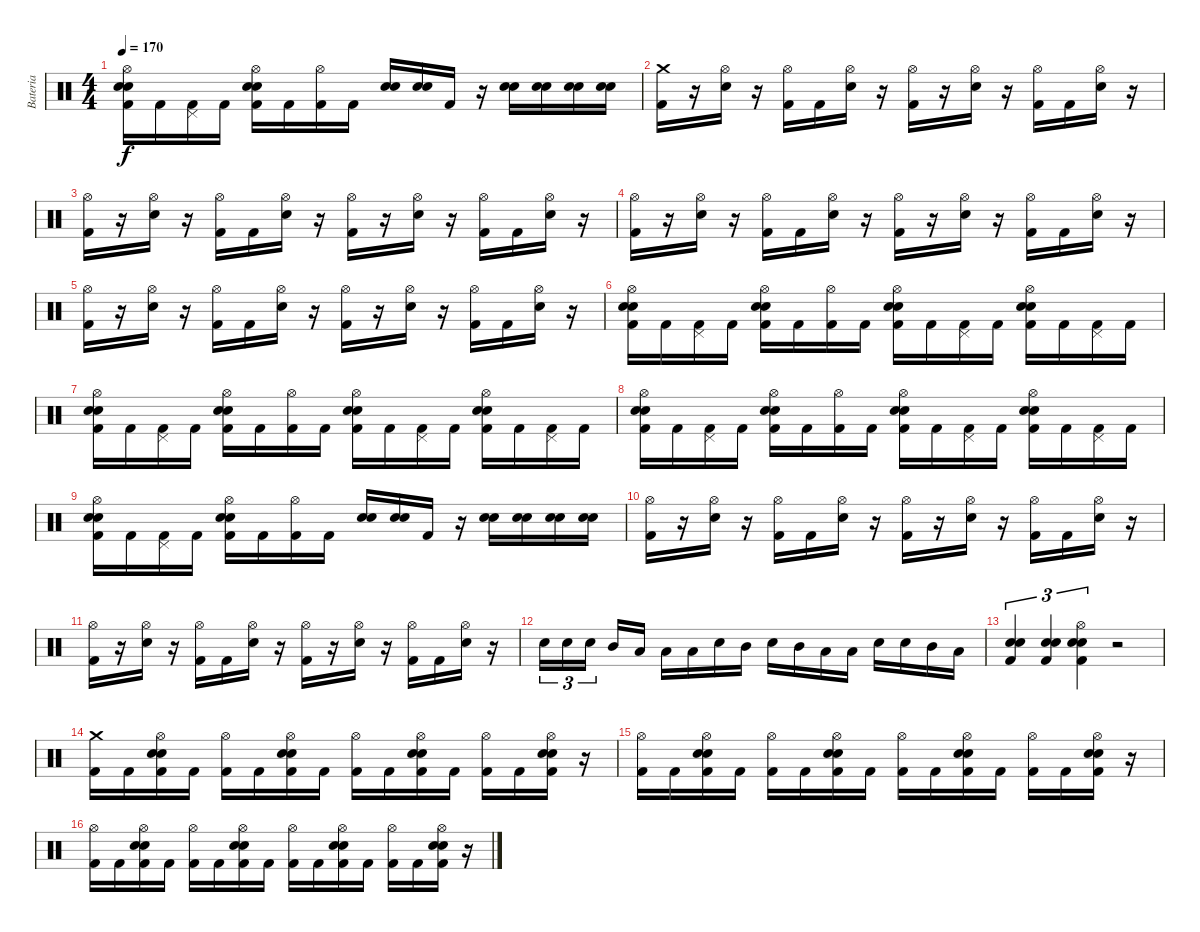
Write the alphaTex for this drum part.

\track ("Bateria" "Bateria") {instrument percussion}
\staff {score}
\articulation defaults
\ts (4 4)
\tempo 170
\clef neutral
\ks c
("Hi-Hat (open)" "Electric Snare (hit)" "Snare (hit) 2" "Kick (hit) 2").16{dy f} "Kick (hit) 2".16 ("Pedal Hi-Hat (hit)" "Kick (hit) 2").16 "Kick (hit) 2".16 ("Hi-Hat (open)" "Electric Snare (hit)" "Snare (hit) 2" "Kick (hit) 2").16 "Kick (hit) 2".16 ("Hi-Hat (open)" "Kick (hit) 2").16 "Kick (hit) 2".16 ("Electric Snare (hit)" "Snare (hit) 2").16 ("Electric Snare (hit)" "Snare (hit) 2").16 "Kick (hit) 2".16 r.16 ("Electric Snare (hit)" "Snare (hit) 2").16 ("Electric Snare (hit)" "Snare (hit) 2").16 ("Electric Snare (hit)" "Snare (hit) 2").16 ("Electric Snare (hit)" "Snare (hit) 2").16 |
("Crash medium (hit)" "Kick (hit) 2").16 r.16 ("Hi-Hat (open)" "Electric Snare (hit)").16 r.16 ("Hi-Hat (open)" "Kick (hit) 2").16 "Kick (hit) 2".16 ("Hi-Hat (open)" "Electric Snare (hit)").16 r.16 ("Hi-Hat (open)" "Kick (hit) 2").16 r.16 ("Hi-Hat (open)" "Electric Snare (hit)").16 r.16 ("Hi-Hat (open)" "Kick (hit) 2").16 "Kick (hit) 2".16 ("Hi-Hat (open)" "Electric Snare (hit)").16 r.16 |
("Hi-Hat (open)" "Kick (hit) 2").16 r.16 ("Hi-Hat (open)" "Electric Snare (hit)").16 r.16 ("Hi-Hat (open)" "Kick (hit) 2").16 "Kick (hit) 2".16 ("Hi-Hat (open)" "Electric Snare (hit)").16 r.16 ("Hi-Hat (open)" "Kick (hit) 2").16 r.16 ("Hi-Hat (open)" "Electric Snare (hit)").16 r.16 ("Hi-Hat (open)" "Kick (hit) 2").16 "Kick (hit) 2".16 ("Hi-Hat (open)" "Electric Snare (hit)").16 r.16 |
("Hi-Hat (open)" "Kick (hit) 2").16 r.16 ("Hi-Hat (open)" "Electric Snare (hit)").16 r.16 ("Hi-Hat (open)" "Kick (hit) 2").16 "Kick (hit) 2".16 ("Hi-Hat (open)" "Electric Snare (hit)").16 r.16 ("Hi-Hat (open)" "Kick (hit) 2").16 r.16 ("Hi-Hat (open)" "Electric Snare (hit)").16 r.16 ("Hi-Hat (open)" "Kick (hit) 2").16 "Kick (hit) 2".16 ("Hi-Hat (open)" "Electric Snare (hit)").16 r.16 |
("Hi-Hat (open)" "Kick (hit) 2").16 r.16 ("Hi-Hat (open)" "Electric Snare (hit)").16 r.16 ("Hi-Hat (open)" "Kick (hit) 2").16 "Kick (hit) 2".16 ("Hi-Hat (open)" "Electric Snare (hit)").16 r.16 ("Hi-Hat (open)" "Kick (hit) 2").16 r.16 ("Hi-Hat (open)" "Electric Snare (hit)").16 r.16 ("Hi-Hat (open)" "Kick (hit) 2").16 "Kick (hit) 2".16 ("Hi-Hat (open)" "Electric Snare (hit)").16 r.16 |
("Hi-Hat (open)" "Electric Snare (hit)" "Snare (hit) 2" "Kick (hit) 2").16 "Kick (hit) 2".16 ("Pedal Hi-Hat (hit)" "Kick (hit) 2").16 "Kick (hit) 2".16 ("Hi-Hat (open)" "Electric Snare (hit)" "Snare (hit) 2" "Kick (hit) 2").16 "Kick (hit) 2".16 ("Hi-Hat (open)" "Kick (hit) 2").16 "Kick (hit) 2".16 ("Hi-Hat (open)" "Electric Snare (hit)" "Snare (hit) 2" "Kick (hit) 2").16 "Kick (hit) 2".16 ("Pedal Hi-Hat (hit)" "Kick (hit) 2").16 "Kick (hit) 2".16 ("Hi-Hat (open)" "Electric Snare (hit)" "Snare (hit) 2" "Kick (hit) 2").16 "Kick (hit) 2".16 ("Pedal Hi-Hat (hit)" "Kick (hit) 2").16 "Kick (hit) 2".16 |
("Hi-Hat (open)" "Electric Snare (hit)" "Snare (hit) 2" "Kick (hit) 2").16 "Kick (hit) 2".16 ("Pedal Hi-Hat (hit)" "Kick (hit) 2").16 "Kick (hit) 2".16 ("Hi-Hat (open)" "Electric Snare (hit)" "Snare (hit) 2" "Kick (hit) 2").16 "Kick (hit) 2".16 ("Hi-Hat (open)" "Kick (hit) 2").16 "Kick (hit) 2".16 ("Hi-Hat (open)" "Electric Snare (hit)" "Snare (hit) 2" "Kick (hit) 2").16 "Kick (hit) 2".16 ("Pedal Hi-Hat (hit)" "Kick (hit) 2").16 "Kick (hit) 2".16 ("Hi-Hat (open)" "Electric Snare (hit)" "Snare (hit) 2" "Kick (hit) 2").16 "Kick (hit) 2".16 ("Pedal Hi-Hat (hit)" "Kick (hit) 2").16 "Kick (hit) 2".16 |
("Hi-Hat (open)" "Electric Snare (hit)" "Snare (hit) 2" "Kick (hit) 2").16 "Kick (hit) 2".16 ("Pedal Hi-Hat (hit)" "Kick (hit) 2").16 "Kick (hit) 2".16 ("Hi-Hat (open)" "Electric Snare (hit)" "Snare (hit) 2" "Kick (hit) 2").16 "Kick (hit) 2".16 ("Hi-Hat (open)" "Kick (hit) 2").16 "Kick (hit) 2".16 ("Hi-Hat (open)" "Electric Snare (hit)" "Snare (hit) 2" "Kick (hit) 2").16 "Kick (hit) 2".16 ("Pedal Hi-Hat (hit)" "Kick (hit) 2").16 "Kick (hit) 2".16 ("Hi-Hat (open)" "Electric Snare (hit)" "Snare (hit) 2" "Kick (hit) 2").16 "Kick (hit) 2".16 ("Pedal Hi-Hat (hit)" "Kick (hit) 2").16 "Kick (hit) 2".16 |
("Hi-Hat (open)" "Electric Snare (hit)" "Snare (hit) 2" "Kick (hit) 2").16 "Kick (hit) 2".16 ("Pedal Hi-Hat (hit)" "Kick (hit) 2").16 "Kick (hit) 2".16 ("Hi-Hat (open)" "Electric Snare (hit)" "Snare (hit) 2" "Kick (hit) 2").16 "Kick (hit) 2".16 ("Hi-Hat (open)" "Kick (hit) 2").16 "Kick (hit) 2".16 ("Electric Snare (hit)" "Snare (hit) 2").16 ("Electric Snare (hit)" "Snare (hit) 2").16 "Kick (hit) 2".16 r.16 ("Electric Snare (hit)" "Snare (hit) 2").16 ("Electric Snare (hit)" "Snare (hit) 2").16 ("Electric Snare (hit)" "Snare (hit) 2").16 ("Electric Snare (hit)" "Snare (hit) 2").16 |
("Hi-Hat (open)" "Kick (hit) 2").16 r.16 ("Hi-Hat (open)" "Electric Snare (hit)").16 r.16 ("Hi-Hat (open)" "Kick (hit) 2").16 "Kick (hit) 2".16 ("Hi-Hat (open)" "Electric Snare (hit)").16 r.16 ("Hi-Hat (open)" "Kick (hit) 2").16 r.16 ("Hi-Hat (open)" "Electric Snare (hit)").16 r.16 ("Hi-Hat (open)" "Kick (hit) 2").16 "Kick (hit) 2".16 ("Hi-Hat (open)" "Electric Snare (hit)").16 r.16 |
("Hi-Hat (open)" "Kick (hit) 2").16 r.16 ("Hi-Hat (open)" "Electric Snare (hit)").16 r.16 ("Hi-Hat (open)" "Kick (hit) 2").16 "Kick (hit) 2".16 ("Hi-Hat (open)" "Electric Snare (hit)").16 r.16 ("Hi-Hat (open)" "Kick (hit) 2").16 r.16 ("Hi-Hat (open)" "Electric Snare (hit)").16 r.16 ("Hi-Hat (open)" "Kick (hit) 2").16 "Kick (hit) 2".16 ("Hi-Hat (open)" "Electric Snare (hit)").16 r.16 |
"Electric Snare (hit)".16{tu (3 2)} "Electric Snare (hit)".16{tu (3 2)} "Electric Snare (hit)".16{tu (3 2)} "Mid Tom (hit)".16 "Low Tom (hit)".16 "Low Tom (hit)".16 "Low Tom (hit)".16 "Electric Snare (hit)".16 "Mid Tom (hit)".16 "Electric Snare (hit)".16 "Mid Tom (hit)".16 "Low Tom (hit)".16 "Low Tom (hit)".16 "Electric Snare (hit)".16 "Electric Snare (hit)".16 "Mid Tom (hit)".16 "Low Tom (hit)".16 |
("Electric Snare (hit)" "Snare (hit) 2" "Kick (hit) 2").4{tu (3 2)} ("Electric Snare (hit)" "Snare (hit) 2" "Kick (hit) 2").4{tu (3 2)} ("Hi-Hat (open)" "Electric Snare (hit)" "Snare (hit) 2" "Kick (hit) 2").4{tu (3 2)} r.2 |
("Crash medium (hit)" "Kick (hit) 2").16 "Kick (hit) 2".16 ("Hi-Hat (open)" "Electric Snare (hit)" "Snare (hit) 2" "Kick (hit) 2").16 "Kick (hit) 2".16 ("Hi-Hat (open)" "Kick (hit) 2").16 "Kick (hit) 2".16 ("Hi-Hat (open)" "Electric Snare (hit)" "Snare (hit) 2" "Kick (hit) 2").16 "Kick (hit) 2".16 ("Hi-Hat (open)" "Kick (hit) 2").16 "Kick (hit) 2".16 ("Hi-Hat (open)" "Electric Snare (hit)" "Snare (hit) 2" "Kick (hit) 2").16 "Kick (hit) 2".16 ("Hi-Hat (open)" "Kick (hit) 2").16 "Kick (hit) 2".16 ("Hi-Hat (open)" "Electric Snare (hit)" "Snare (hit) 2" "Kick (hit) 2").16 r.16 |
("Hi-Hat (open)" "Kick (hit) 2").16 "Kick (hit) 2".16 ("Hi-Hat (open)" "Electric Snare (hit)" "Snare (hit) 2" "Kick (hit) 2").16 "Kick (hit) 2".16 ("Hi-Hat (open)" "Kick (hit) 2").16 "Kick (hit) 2".16 ("Hi-Hat (open)" "Electric Snare (hit)" "Snare (hit) 2" "Kick (hit) 2").16 "Kick (hit) 2".16 ("Hi-Hat (open)" "Kick (hit) 2").16 "Kick (hit) 2".16 ("Hi-Hat (open)" "Electric Snare (hit)" "Snare (hit) 2" "Kick (hit) 2").16 "Kick (hit) 2".16 ("Hi-Hat (open)" "Kick (hit) 2").16 "Kick (hit) 2".16 ("Hi-Hat (open)" "Electric Snare (hit)" "Snare (hit) 2" "Kick (hit) 2").16 r.16 |
("Hi-Hat (open)" "Kick (hit) 2").16 "Kick (hit) 2".16 ("Hi-Hat (open)" "Electric Snare (hit)" "Snare (hit) 2" "Kick (hit) 2").16 "Kick (hit) 2".16 ("Hi-Hat (open)" "Kick (hit) 2").16 "Kick (hit) 2".16 ("Hi-Hat (open)" "Electric Snare (hit)" "Snare (hit) 2" "Kick (hit) 2").16 "Kick (hit) 2".16 ("Hi-Hat (open)" "Kick (hit) 2").16 "Kick (hit) 2".16 ("Hi-Hat (open)" "Electric Snare (hit)" "Snare (hit) 2" "Kick (hit) 2").16 "Kick (hit) 2".16 ("Hi-Hat (open)" "Kick (hit) 2").16 "Kick (hit) 2".16 ("Hi-Hat (open)" "Electric Snare (hit)" "Snare (hit) 2" "Kick (hit) 2").16 r.16
